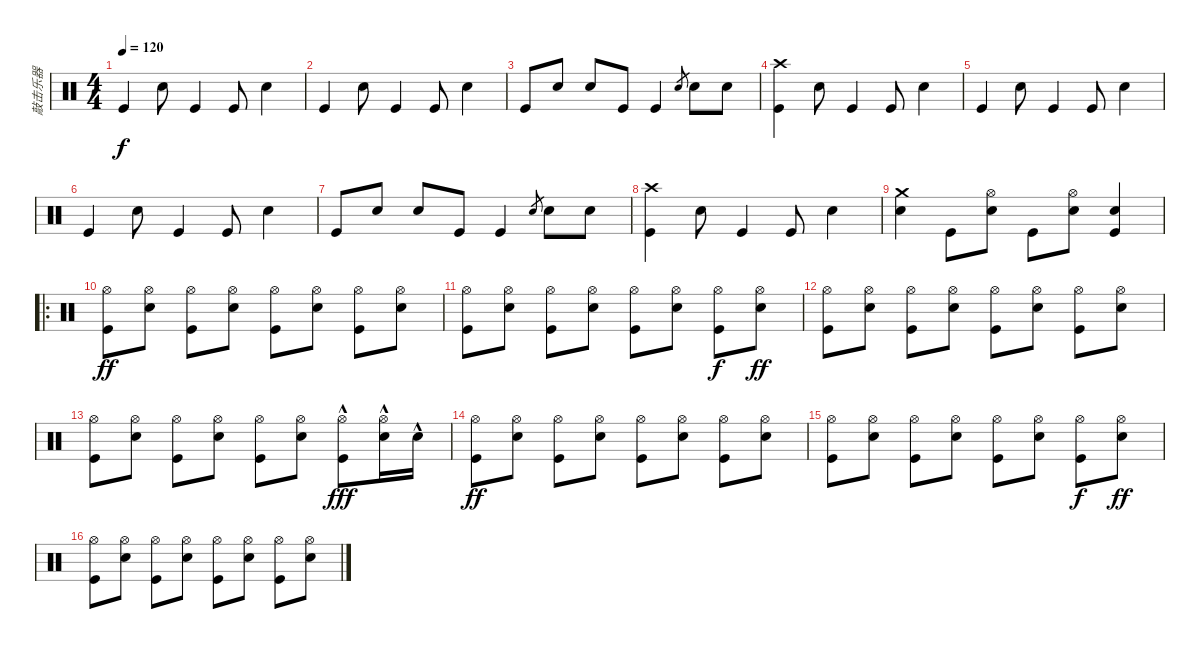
\track ("敲击乐器" "敲击乐器") {instrument percussion}
\staff {score}
\articulation defaults
\ts (4 4)
\tempo 120
\clef neutral
\ks c "Kick (hit)".4{dy f} "Electric Snare (hit)".8 "Kick (hit)".4 "Kick (hit)".8 "Electric Snare (hit)".4
|
"Kick (hit)".4 "Electric Snare (hit)".8 "Kick (hit)".4 "Kick (hit)".8 "Electric Snare (hit)".4 |
"Kick (hit)".8 "Electric Snare (hit)".8 "Electric Snare (hit)".8 "Kick (hit)".8 "Kick (hit)".4 "Electric Snare (hit)".8{gr} "Electric Snare (hit)".8 "Electric Snare (hit)".8 |
("Kick (hit)" "Crash high (hit)").4 "Electric Snare (hit)".8 "Kick (hit)".4 "Kick (hit)".8 "Electric Snare (hit)".4 |
"Kick (hit)".4 "Electric Snare (hit)".8 "Kick (hit)".4 "Kick (hit)".8 "Electric Snare (hit)".4 |
"Kick (hit)".4 "Electric Snare (hit)".8 "Kick (hit)".4 "Kick (hit)".8 "Electric Snare (hit)".4 |
"Kick (hit)".8 "Electric Snare (hit)".8 "Electric Snare (hit)".8 "Kick (hit)".8 "Kick (hit)".4 "Electric Snare (hit)".8{gr} "Electric Snare (hit)".8 "Electric Snare (hit)".8 |
("Kick (hit)" "Crash high (hit)").4 "Electric Snare (hit)".8 "Kick (hit)".4 "Kick (hit)".8 "Electric Snare (hit)".4 |
("Crash medium (hit)" "Electric Snare (hit)").4 "Kick (hit)".8 ("Electric Snare (hit)" "Hi-Hat (open)").8 "Kick (hit)".8 ("Electric Snare (hit)" "Hi-Hat (open)").8 ("Electric Snare (hit)" "Kick (hit)").4 |
\ro
("Hi-Hat (open)" "Kick (hit)").8{dy ff} ("Hi-Hat (open)" "Electric Snare (hit)").8 ("Hi-Hat (open)" "Kick (hit)").8 ("Hi-Hat (open)" "Electric Snare (hit)").8 ("Hi-Hat (open)" "Kick (hit)").8 ("Hi-Hat (open)" "Electric Snare (hit)").8 ("Hi-Hat (open)" "Kick (hit)").8 ("Hi-Hat (open)" "Electric Snare (hit)").8 |
("Hi-Hat (open)" "Kick (hit)").8 ("Hi-Hat (open)" "Electric Snare (hit)").8 ("Hi-Hat (open)" "Kick (hit)").8 ("Hi-Hat (open)" "Electric Snare (hit)").8 ("Hi-Hat (open)" "Kick (hit)").8 ("Hi-Hat (open)" "Electric Snare (hit)").8 ("Hi-Hat (open)" "Kick (hit)").8{dy f} ("Hi-Hat (open)" "Electric Snare (hit)").8{dy ff} |
("Hi-Hat (open)" "Kick (hit)").8 ("Hi-Hat (open)" "Electric Snare (hit)").8 ("Hi-Hat (open)" "Kick (hit)").8 ("Hi-Hat (open)" "Electric Snare (hit)").8 ("Hi-Hat (open)" "Kick (hit)").8 ("Hi-Hat (open)" "Electric Snare (hit)").8 ("Hi-Hat (open)" "Kick (hit)").8 ("Hi-Hat (open)" "Electric Snare (hit)").8 |
("Hi-Hat (open)" "Kick (hit)").8 ("Hi-Hat (open)" "Electric Snare (hit)").8 ("Hi-Hat (open)" "Kick (hit)").8 ("Hi-Hat (open)" "Electric Snare (hit)").8 ("Hi-Hat (open)" "Kick (hit)").8 ("Hi-Hat (open)" "Electric Snare (hit)").8 ("Hi-Hat (open)" "Kick (hit)"{hac}).8{dy fff} ("Hi-Hat (open)" "Electric Snare (hit)"{hac}).16 "Electric Snare (hit)"{hac}.16 |
("Hi-Hat (open)" "Kick (hit)").8{dy ff} ("Hi-Hat (open)" "Electric Snare (hit)").8 ("Hi-Hat (open)" "Kick (hit)").8 ("Hi-Hat (open)" "Electric Snare (hit)").8 ("Hi-Hat (open)" "Kick (hit)").8 ("Hi-Hat (open)" "Electric Snare (hit)").8 ("Hi-Hat (open)" "Kick (hit)").8 ("Hi-Hat (open)" "Electric Snare (hit)").8 |
("Hi-Hat (open)" "Kick (hit)").8 ("Hi-Hat (open)" "Electric Snare (hit)").8 ("Hi-Hat (open)" "Kick (hit)").8 ("Hi-Hat (open)" "Electric Snare (hit)").8 ("Hi-Hat (open)" "Kick (hit)").8 ("Hi-Hat (open)" "Electric Snare (hit)").8 ("Hi-Hat (open)" "Kick (hit)").8{dy f} ("Hi-Hat (open)" "Electric Snare (hit)").8{dy ff} |
("Hi-Hat (open)" "Kick (hit)").8 ("Hi-Hat (open)" "Electric Snare (hit)").8 ("Hi-Hat (open)" "Kick (hit)").8 ("Hi-Hat (open)" "Electric Snare (hit)").8 ("Hi-Hat (open)" "Kick (hit)").8 ("Hi-Hat (open)" "Electric Snare (hit)").8 ("Hi-Hat (open)" "Kick (hit)").8 ("Hi-Hat (open)" "Electric Snare (hit)").8
